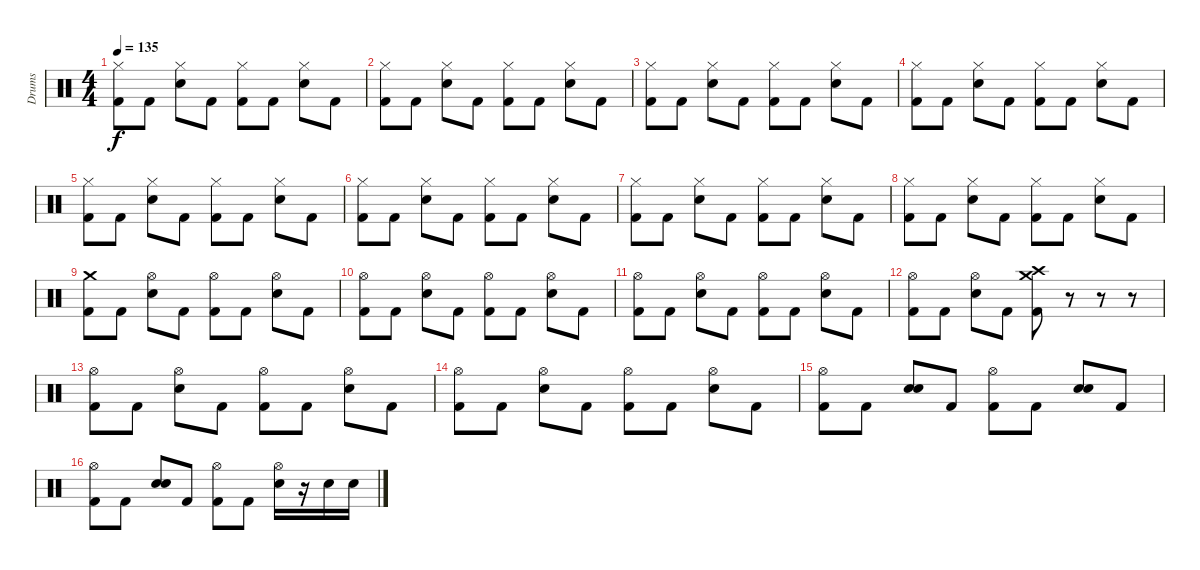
\track ("Drums" "Drums") {instrument percussion}
\staff {score}
\articulation defaults
\ts (4 4)
\tempo 135
\clef neutral
\ks c
("Hi-Hat (closed)" "Kick (hit) 2").8{dy f} "Kick (hit) 2".8 ("Hi-Hat (closed)" "Electric Snare (hit)").8 "Kick (hit) 2".8 ("Hi-Hat (closed)" "Kick (hit) 2").8 "Kick (hit) 2".8 ("Hi-Hat (closed)" "Electric Snare (hit)").8 "Kick (hit) 2".8 |
("Hi-Hat (closed)" "Kick (hit) 2").8 "Kick (hit) 2".8 ("Hi-Hat (closed)" "Electric Snare (hit)").8 "Kick (hit) 2".8 ("Hi-Hat (closed)" "Kick (hit) 2").8 "Kick (hit) 2".8 ("Hi-Hat (closed)" "Electric Snare (hit)").8 "Kick (hit) 2".8 |
("Hi-Hat (closed)" "Kick (hit) 2").8 "Kick (hit) 2".8 ("Hi-Hat (closed)" "Electric Snare (hit)").8 "Kick (hit) 2".8 ("Hi-Hat (closed)" "Kick (hit) 2").8 "Kick (hit) 2".8 ("Hi-Hat (closed)" "Electric Snare (hit)").8 "Kick (hit) 2".8 |
("Hi-Hat (closed)" "Kick (hit) 2").8 "Kick (hit) 2".8 ("Hi-Hat (closed)" "Electric Snare (hit)").8 "Kick (hit) 2".8 ("Hi-Hat (closed)" "Kick (hit) 2").8 "Kick (hit) 2".8 ("Hi-Hat (closed)" "Electric Snare (hit)").8 "Kick (hit) 2".8 |
("Hi-Hat (closed)" "Kick (hit) 2").8 "Kick (hit) 2".8 ("Hi-Hat (closed)" "Electric Snare (hit)").8 "Kick (hit) 2".8 ("Hi-Hat (closed)" "Kick (hit) 2").8 "Kick (hit) 2".8 ("Hi-Hat (closed)" "Electric Snare (hit)").8 "Kick (hit) 2".8 |
("Hi-Hat (closed)" "Kick (hit) 2").8 "Kick (hit) 2".8 ("Hi-Hat (closed)" "Electric Snare (hit)").8 "Kick (hit) 2".8 ("Hi-Hat (closed)" "Kick (hit) 2").8 "Kick (hit) 2".8 ("Hi-Hat (closed)" "Electric Snare (hit)").8 "Kick (hit) 2".8 |
("Hi-Hat (closed)" "Kick (hit) 2").8 "Kick (hit) 2".8 ("Hi-Hat (closed)" "Electric Snare (hit)").8 "Kick (hit) 2".8 ("Hi-Hat (closed)" "Kick (hit) 2").8 "Kick (hit) 2".8 ("Hi-Hat (closed)" "Electric Snare (hit)").8 "Kick (hit) 2".8 |
("Hi-Hat (closed)" "Kick (hit) 2").8 "Kick (hit) 2".8 ("Hi-Hat (closed)" "Electric Snare (hit)").8 "Kick (hit) 2".8 ("Hi-Hat (closed)" "Kick (hit) 2").8 "Kick (hit) 2".8 ("Hi-Hat (closed)" "Electric Snare (hit)").8 "Kick (hit) 2".8 |
("Crash medium (hit)" "Kick (hit) 2").8 "Kick (hit) 2".8 ("Hi-Hat (open)" "Electric Snare (hit)").8 "Kick (hit) 2".8 ("Hi-Hat (open)" "Kick (hit) 2").8 "Kick (hit) 2".8 ("Hi-Hat (open)" "Electric Snare (hit)").8 "Kick (hit) 2".8 |
("Hi-Hat (open)" "Kick (hit) 2").8 "Kick (hit) 2".8 ("Hi-Hat (open)" "Electric Snare (hit)").8 "Kick (hit) 2".8 ("Hi-Hat (open)" "Kick (hit) 2").8 "Kick (hit) 2".8 ("Hi-Hat (open)" "Electric Snare (hit)").8 "Kick (hit) 2".8 |
("Hi-Hat (open)" "Kick (hit) 2").8 "Kick (hit) 2".8 ("Hi-Hat (open)" "Electric Snare (hit)").8 "Kick (hit) 2".8 ("Hi-Hat (open)" "Kick (hit) 2").8 "Kick (hit) 2".8 ("Hi-Hat (open)" "Electric Snare (hit)").8 "Kick (hit) 2".8 |
("Hi-Hat (open)" "Kick (hit) 2").8 "Kick (hit) 2".8 ("Hi-Hat (open)" "Electric Snare (hit)").8 "Kick (hit) 2".8 ("Crash medium (hit)" "Crash high (hit)" "Kick (hit) 2").8 r.8 r.8 r.8 |
("Hi-Hat (open)" "Kick (hit) 2").8 "Kick (hit) 2".8 ("Hi-Hat (open)" "Electric Snare (hit)").8 "Kick (hit) 2".8 ("Hi-Hat (open)" "Kick (hit) 2").8 "Kick (hit) 2".8 ("Hi-Hat (open)" "Electric Snare (hit)").8 "Kick (hit) 2".8 |
("Hi-Hat (open)" "Kick (hit) 2").8 "Kick (hit) 2".8 ("Hi-Hat (open)" "Electric Snare (hit)").8 "Kick (hit) 2".8 ("Hi-Hat (open)" "Kick (hit) 2").8 "Kick (hit) 2".8 ("Hi-Hat (open)" "Electric Snare (hit)").8 "Kick (hit) 2".8 |
("Hi-Hat (open)" "Kick (hit) 2").8 "Kick (hit) 2".8 ("Electric Snare (hit)" "Electric Snare (hit)").8 "Kick (hit) 2".8 ("Hi-Hat (open)" "Kick (hit) 2").8 "Kick (hit) 2".8 ("Electric Snare (hit)" "Electric Snare (hit)").8 "Kick (hit) 2".8 |
("Hi-Hat (open)" "Kick (hit) 2").8 "Kick (hit) 2".8 ("Electric Snare (hit)" "Electric Snare (hit)").8 "Kick (hit) 2".8 ("Hi-Hat (open)" "Kick (hit) 2").8 "Kick (hit) 2".8 ("Hi-Hat (open)" "Electric Snare (hit)").16 r.16 "Electric Snare (hit)".16 "Electric Snare (hit)".16
